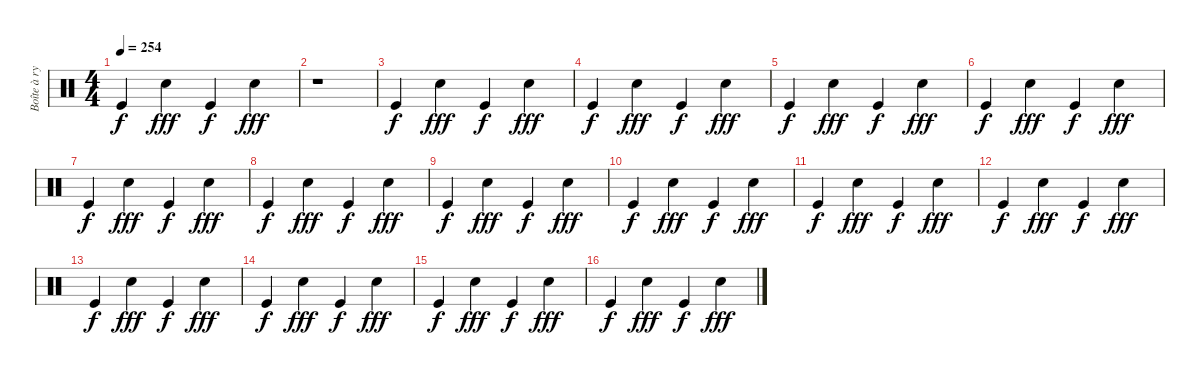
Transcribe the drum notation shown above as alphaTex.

\track ("Boîte à rytmes" "Boîte à ry") {instrument percussion}
\staff {score}
\articulation defaults
\ts (4 4)
\tempo 254
\clef neutral
\ks c "Kick (hit)".4{dy f} "Snare (hit) 2".4{dy fff} "Kick (hit)".4{dy f} "Snare (hit) 2".4{dy fff}
|
r.1 |
"Kick (hit)".4{dy f} "Snare (hit) 2".4{dy fff} "Kick (hit)".4{dy f} "Snare (hit) 2".4{dy fff} |
"Kick (hit)".4{dy f} "Snare (hit) 2".4{dy fff} "Kick (hit)".4{dy f} "Snare (hit) 2".4{dy fff} |
"Kick (hit)".4{dy f} "Snare (hit) 2".4{dy fff} "Kick (hit)".4{dy f} "Snare (hit) 2".4{dy fff} |
"Kick (hit)".4{dy f} "Snare (hit) 2".4{dy fff} "Kick (hit)".4{dy f} "Snare (hit) 2".4{dy fff} |
"Kick (hit)".4{dy f} "Snare (hit) 2".4{dy fff} "Kick (hit)".4{dy f} "Snare (hit) 2".4{dy fff} |
"Kick (hit)".4{dy f} "Snare (hit) 2".4{dy fff} "Kick (hit)".4{dy f} "Snare (hit) 2".4{dy fff} |
"Kick (hit)".4{dy f} "Snare (hit) 2".4{dy fff} "Kick (hit)".4{dy f} "Snare (hit) 2".4{dy fff} |
"Kick (hit)".4{dy f} "Snare (hit) 2".4{dy fff} "Kick (hit)".4{dy f} "Snare (hit) 2".4{dy fff} |
"Kick (hit)".4{dy f} "Snare (hit) 2".4{dy fff} "Kick (hit)".4{dy f} "Snare (hit) 2".4{dy fff} |
"Kick (hit)".4{dy f} "Snare (hit) 2".4{dy fff} "Kick (hit)".4{dy f} "Snare (hit) 2".4{dy fff} |
"Kick (hit)".4{dy f} "Snare (hit) 2".4{dy fff} "Kick (hit)".4{dy f} "Snare (hit) 2".4{dy fff} |
"Kick (hit)".4{dy f} "Snare (hit) 2".4{dy fff} "Kick (hit)".4{dy f} "Snare (hit) 2".4{dy fff} |
"Kick (hit)".4{dy f} "Snare (hit) 2".4{dy fff} "Kick (hit)".4{dy f} "Snare (hit) 2".4{dy fff} |
"Kick (hit)".4{dy f} "Snare (hit) 2".4{dy fff} "Kick (hit)".4{dy f} "Snare (hit) 2".4{dy fff}
